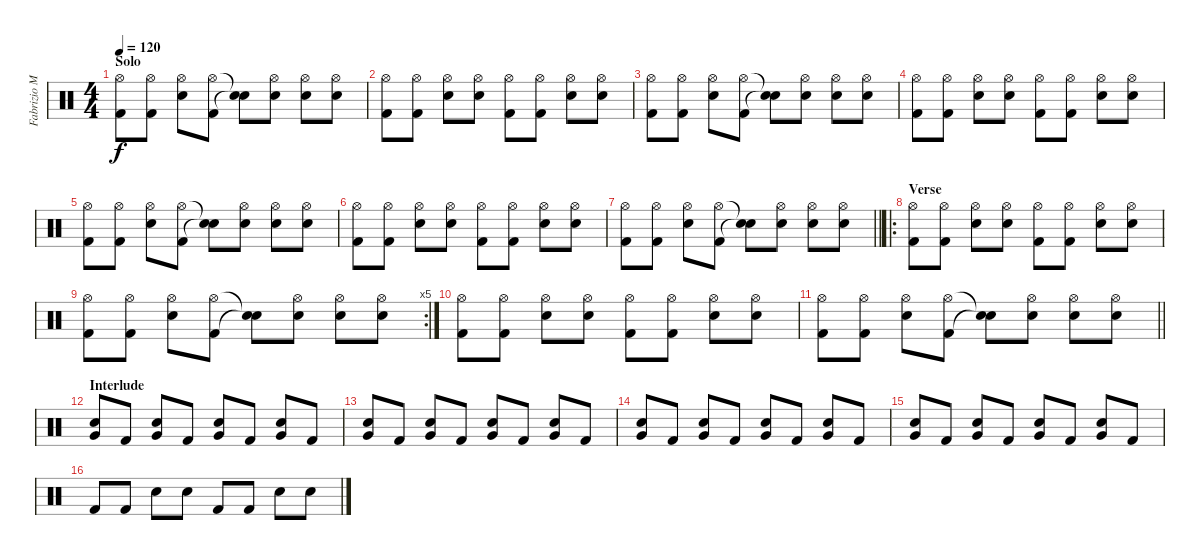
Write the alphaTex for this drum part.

\track ("Fabrizio Moretti" "Fabrizio M") {instrument percussion}
\staff {score}
\articulation defaults
\ts (4 4)
\section ("" "Solo")
\tempo 120
\clef neutral
\ks c
("Hi-Hat (open)" "Kick (hit) 2").8{dy f} ("Hi-Hat (open)" "Kick (hit) 2").8 ("Hi-Hat (open)" "Electric Snare (hit)").8 ("Hi-Hat (open)" "Kick (hit) 2").8 ("Snare (hit)"{t} "Snare (hit)"{t}).8 ("Hi-Hat (open)" "Electric Snare (hit)").8 ("Hi-Hat (open)" "Electric Snare (hit)").8 ("Hi-Hat (open)" "Electric Snare (hit)").8 |
("Hi-Hat (open)" "Kick (hit) 2").8 ("Hi-Hat (open)" "Kick (hit) 2").8 ("Hi-Hat (open)" "Electric Snare (hit)").8 ("Hi-Hat (open)" "Electric Snare (hit)").8 ("Hi-Hat (open)" "Kick (hit) 2").8 ("Hi-Hat (open)" "Kick (hit) 2").8 ("Hi-Hat (open)" "Electric Snare (hit)").8 ("Hi-Hat (open)" "Electric Snare (hit)").8 |
("Hi-Hat (open)" "Kick (hit) 2").8 ("Hi-Hat (open)" "Kick (hit) 2").8 ("Hi-Hat (open)" "Electric Snare (hit)").8 ("Hi-Hat (open)" "Kick (hit) 2").8 ("Snare (hit)"{t} "Snare (hit)"{t}).8 ("Hi-Hat (open)" "Electric Snare (hit)").8 ("Hi-Hat (open)" "Electric Snare (hit)").8 ("Hi-Hat (open)" "Electric Snare (hit)").8 |
("Hi-Hat (open)" "Kick (hit) 2").8 ("Hi-Hat (open)" "Kick (hit) 2").8 ("Hi-Hat (open)" "Electric Snare (hit)").8 ("Hi-Hat (open)" "Electric Snare (hit)").8 ("Hi-Hat (open)" "Kick (hit) 2").8 ("Hi-Hat (open)" "Kick (hit) 2").8 ("Hi-Hat (open)" "Electric Snare (hit)").8 ("Hi-Hat (open)" "Electric Snare (hit)").8 |
("Hi-Hat (open)" "Kick (hit) 2").8 ("Hi-Hat (open)" "Kick (hit) 2").8 ("Hi-Hat (open)" "Electric Snare (hit)").8 ("Hi-Hat (open)" "Kick (hit) 2").8 ("Snare (hit)"{t} "Snare (hit)"{t}).8 ("Hi-Hat (open)" "Electric Snare (hit)").8 ("Hi-Hat (open)" "Electric Snare (hit)").8 ("Hi-Hat (open)" "Electric Snare (hit)").8 |
("Hi-Hat (open)" "Kick (hit) 2").8 ("Hi-Hat (open)" "Kick (hit) 2").8 ("Hi-Hat (open)" "Electric Snare (hit)").8 ("Hi-Hat (open)" "Electric Snare (hit)").8 ("Hi-Hat (open)" "Kick (hit) 2").8 ("Hi-Hat (open)" "Kick (hit) 2").8 ("Hi-Hat (open)" "Electric Snare (hit)").8 ("Hi-Hat (open)" "Electric Snare (hit)").8 |
\barLineRight lightlight
("Hi-Hat (open)" "Kick (hit) 2").8 ("Hi-Hat (open)" "Kick (hit) 2").8 ("Hi-Hat (open)" "Electric Snare (hit)").8 ("Hi-Hat (open)" "Kick (hit) 2").8 ("Snare (hit)"{t} "Snare (hit)"{t}).8 ("Hi-Hat (open)" "Electric Snare (hit)").8 ("Hi-Hat (open)" "Electric Snare (hit)").8 ("Hi-Hat (open)" "Electric Snare (hit)").8 |
\ro
\section ("" "Verse")
("Hi-Hat (open)" "Kick (hit) 2").8 ("Hi-Hat (open)" "Kick (hit) 2").8 ("Hi-Hat (open)" "Electric Snare (hit)").8 ("Hi-Hat (open)" "Electric Snare (hit)").8 ("Hi-Hat (open)" "Kick (hit) 2").8 ("Hi-Hat (open)" "Kick (hit) 2").8 ("Hi-Hat (open)" "Electric Snare (hit)").8 ("Hi-Hat (open)" "Electric Snare (hit)").8 |
\rc 5
("Hi-Hat (open)" "Kick (hit) 2").8 ("Hi-Hat (open)" "Kick (hit) 2").8 ("Hi-Hat (open)" "Electric Snare (hit)").8 ("Hi-Hat (open)" "Kick (hit) 2").8 ("Snare (hit)"{t} "Snare (hit)"{t}).8 ("Hi-Hat (open)" "Electric Snare (hit)").8 ("Hi-Hat (open)" "Electric Snare (hit)").8 ("Hi-Hat (open)" "Electric Snare (hit)").8 |
("Hi-Hat (open)" "Kick (hit) 2").8 ("Hi-Hat (open)" "Kick (hit) 2").8 ("Hi-Hat (open)" "Electric Snare (hit)").8 ("Hi-Hat (open)" "Electric Snare (hit)").8 ("Hi-Hat (open)" "Kick (hit) 2").8 ("Hi-Hat (open)" "Kick (hit) 2").8 ("Hi-Hat (open)" "Electric Snare (hit)").8 ("Hi-Hat (open)" "Electric Snare (hit)").8 |
\barLineRight lightlight
("Hi-Hat (open)" "Kick (hit) 2").8 ("Hi-Hat (open)" "Kick (hit) 2").8 ("Hi-Hat (open)" "Electric Snare (hit)").8 ("Hi-Hat (open)" "Kick (hit) 2").8 ("Snare (hit)"{t} "Snare (hit)"{t}).8 ("Hi-Hat (open)" "Electric Snare (hit)").8 ("Hi-Hat (open)" "Electric Snare (hit)").8 ("Hi-Hat (open)" "Electric Snare (hit)").8 |
\section ("" "Interlude")
("Electric Snare (hit)" "Very Low Tom (hit)").8 "Kick (hit) 2".8 ("Electric Snare (hit)" "Very Low Tom (hit)").8 "Kick (hit) 2".8 ("Electric Snare (hit)" "Very Low Tom (hit)").8 "Kick (hit) 2".8 ("Electric Snare (hit)" "Very Low Tom (hit)").8 "Kick (hit) 2".8 |
("Electric Snare (hit)" "Very Low Tom (hit)").8 "Kick (hit) 2".8 ("Electric Snare (hit)" "Very Low Tom (hit)").8 "Kick (hit) 2".8 ("Electric Snare (hit)" "Very Low Tom (hit)").8 "Kick (hit) 2".8 ("Electric Snare (hit)" "Very Low Tom (hit)").8 "Kick (hit) 2".8 |
("Electric Snare (hit)" "Very Low Tom (hit)").8 "Kick (hit) 2".8 ("Electric Snare (hit)" "Very Low Tom (hit)").8 "Kick (hit) 2".8 ("Electric Snare (hit)" "Very Low Tom (hit)").8 "Kick (hit) 2".8 ("Electric Snare (hit)" "Very Low Tom (hit)").8 "Kick (hit) 2".8 |
("Electric Snare (hit)" "Very Low Tom (hit)").8 "Kick (hit) 2".8 ("Electric Snare (hit)" "Very Low Tom (hit)").8 "Kick (hit) 2".8 ("Electric Snare (hit)" "Very Low Tom (hit)").8 "Kick (hit) 2".8 ("Electric Snare (hit)" "Very Low Tom (hit)").8 "Kick (hit) 2".8 |
"Kick (hit) 2".8 "Kick (hit) 2".8 "Electric Snare (hit)".8 "Electric Snare (hit)".8 "Kick (hit) 2".8 "Kick (hit) 2".8 "Electric Snare (hit)".8 "Electric Snare (hit)".8
